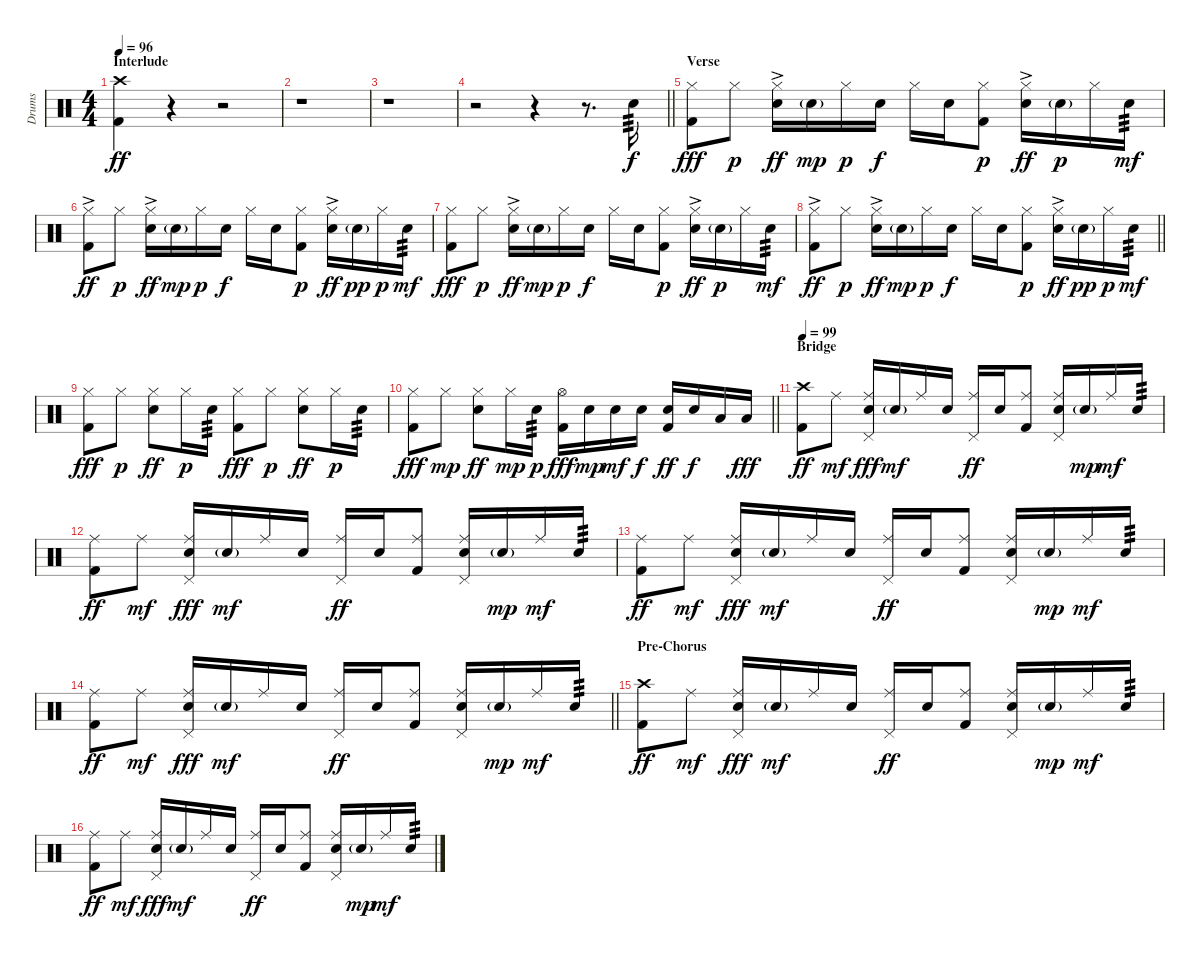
\track ("Drums" "Drums") {instrument percussion}
\staff {score}
\articulation defaults
\ts (4 4)
\section ("" "Interlude")
\tempo 96
\clef neutral
\ks aminor
("Crash high (hit)" "Kick (hit) 2").4{dy ff} r.4 r.2 |
r.1 |
r.1 |
\barLineRight lightlight
r.2 r.4 r.8{d} "Electric Snare (hit)".16{tp 3 dy f} |
\section ("" "Verse")
("Hi-Hat (closed)" "Kick (hit) 2").8{dy fff} "Hi-Hat (closed)".8{dy p} ("Hi-Hat (closed)"{ac} "Electric Snare (hit)"{ac}).16{dy ff} "Electric Snare (hit)"{g}.16{dy mp} "Hi-Hat (closed)".16{dy p} "Electric Snare (hit)".16{dy f} "Hi-Hat (closed)".16 "Electric Snare (hit)".16 ("Hi-Hat (closed)" "Kick (hit) 2").8{dy p} ("Hi-Hat (closed)"{ac} "Electric Snare (hit)"{ac}).16{dy ff} "Electric Snare (hit)"{g}.16{dy p} "Hi-Hat (closed)".16 "Electric Snare (hit)".16{tp 3 dy mf} |
("Hi-Hat (closed)"{ac} "Kick (hit) 2").8{dy ff} "Hi-Hat (closed)".8{dy p} ("Hi-Hat (closed)"{ac} "Electric Snare (hit)"{ac}).16{dy ff} "Electric Snare (hit)"{g}.16{dy mp} "Hi-Hat (closed)".16{dy p} "Electric Snare (hit)".16{dy f} "Hi-Hat (closed)".16 "Electric Snare (hit)".16 ("Hi-Hat (closed)" "Kick (hit) 2").8{dy p} ("Hi-Hat (closed)"{ac} "Electric Snare (hit)"{ac}).16{dy ff} "Electric Snare (hit)"{g}.16{dy pp} "Hi-Hat (closed)".16{dy p} "Electric Snare (hit)".16{tp 3 dy mf} |
("Hi-Hat (closed)" "Kick (hit) 2").8{dy fff} "Hi-Hat (closed)".8{dy p} ("Hi-Hat (closed)"{ac} "Electric Snare (hit)"{ac}).16{dy ff} "Electric Snare (hit)"{g}.16{dy mp} "Hi-Hat (closed)".16{dy p} "Electric Snare (hit)".16{dy f} "Hi-Hat (closed)".16 "Electric Snare (hit)".16 ("Hi-Hat (closed)" "Kick (hit) 2").8{dy p} ("Hi-Hat (closed)"{ac} "Electric Snare (hit)"{ac}).16{dy ff} "Electric Snare (hit)"{g}.16{dy p} "Hi-Hat (closed)".16 "Electric Snare (hit)".16{tp 3 dy mf} |
\barLineRight lightlight
("Hi-Hat (closed)"{ac} "Kick (hit) 2").8{dy ff} "Hi-Hat (closed)".8{dy p} ("Hi-Hat (closed)"{ac} "Electric Snare (hit)"{ac}).16{dy ff} "Electric Snare (hit)"{g}.16{dy mp} "Hi-Hat (closed)".16{dy p} "Electric Snare (hit)".16{dy f} "Hi-Hat (closed)".16 "Electric Snare (hit)".16 ("Hi-Hat (closed)" "Kick (hit) 2").8{dy p} ("Hi-Hat (closed)"{ac} "Electric Snare (hit)"{ac}).16{dy ff} "Electric Snare (hit)"{g}.16{dy pp} "Hi-Hat (closed)".16{dy p} "Electric Snare (hit)".16{tp 3 dy mf} |
("Hi-Hat (closed)" "Kick (hit) 2").8{dy fff} "Hi-Hat (closed)".8{dy p} ("Hi-Hat (closed)" "Electric Snare (hit)").8{dy ff} "Hi-Hat (closed)".16{dy p} "Electric Snare (hit)".16{tp 3} ("Hi-Hat (closed)" "Kick (hit) 2").8{dy fff} "Hi-Hat (closed)".8{dy p} ("Hi-Hat (closed)" "Electric Snare (hit)").8{dy ff} "Hi-Hat (closed)".16{dy p} "Electric Snare (hit)".16{tp 3} |
\barLineRight lightlight
("Hi-Hat (closed)" "Kick (hit) 2").8{dy fff} "Hi-Hat (closed)".8{dy mp} ("Hi-Hat (closed)" "Electric Snare (hit)").8{dy ff} "Hi-Hat (closed)".16{dy mp} "Electric Snare (hit)".16{tp 3 dy p} ("Hi-Hat (open)" "Kick (hit) 2").16{dy fff} "Electric Snare (hit)".16{dy mp} "Electric Snare (hit)".16{dy mf} "Electric Snare (hit)".16{dy f} ("Electric Snare (hit)" "Kick (hit) 2").16{dy ff} "Electric Snare (hit)".16{dy f} "Low Tom (hit)".16 "Low Tom (hit)".16{dy fff} |
\section ("" "Bridge")
\tempo 99
\ks c
("Crash high (hit)" "Kick (hit) 2").8{dy ff} "Ride (middle)".8{dy mf} ("Ride (middle)" "Pedal Hi-Hat (hit)" "Electric Snare (hit)").16{dy fff} "Electric Snare (hit)"{g}.16{dy mf} "Ride (middle)".16 "Electric Snare (hit)".16 ("Ride (middle)" "Pedal Hi-Hat (hit)").16{dy ff} "Electric Snare (hit)".16 ("Ride (middle)" "Kick (hit) 2").8 ("Ride (middle)" "Pedal Hi-Hat (hit)" "Electric Snare (hit)").16 "Electric Snare (hit)"{g}.16{dy mp} "Ride (middle)".16{dy mf} "Electric Snare (hit)".16{tp 3} |
("Ride (middle)" "Kick (hit) 2").8{dy ff} "Ride (middle)".8{dy mf} ("Ride (middle)" "Pedal Hi-Hat (hit)" "Electric Snare (hit)").16{dy fff} "Electric Snare (hit)"{g}.16{dy mf} "Ride (middle)".16 "Electric Snare (hit)".16 ("Ride (middle)" "Pedal Hi-Hat (hit)").16{dy ff} "Electric Snare (hit)".16 ("Ride (middle)" "Kick (hit) 2").8 ("Ride (middle)" "Pedal Hi-Hat (hit)" "Electric Snare (hit)").16 "Electric Snare (hit)"{g}.16{dy mp} "Ride (middle)".16{dy mf} "Electric Snare (hit)".16{tp 3} |
("Ride (middle)" "Kick (hit) 2").8{dy ff} "Ride (middle)".8{dy mf} ("Ride (middle)" "Pedal Hi-Hat (hit)" "Electric Snare (hit)").16{dy fff} "Electric Snare (hit)"{g}.16{dy mf} "Ride (middle)".16 "Electric Snare (hit)".16 ("Ride (middle)" "Pedal Hi-Hat (hit)").16{dy ff} "Electric Snare (hit)".16 ("Ride (middle)" "Kick (hit) 2").8 ("Ride (middle)" "Pedal Hi-Hat (hit)" "Electric Snare (hit)").16 "Electric Snare (hit)"{g}.16{dy mp} "Ride (middle)".16{dy mf} "Electric Snare (hit)".16{tp 3} |
\barLineRight lightlight
("Ride (middle)" "Kick (hit) 2").8{dy ff} "Ride (middle)".8{dy mf} ("Ride (middle)" "Pedal Hi-Hat (hit)" "Electric Snare (hit)").16{dy fff} "Electric Snare (hit)"{g}.16{dy mf} "Ride (middle)".16 "Electric Snare (hit)".16 ("Ride (middle)" "Pedal Hi-Hat (hit)").16{dy ff} "Electric Snare (hit)".16 ("Ride (middle)" "Kick (hit) 2").8 ("Ride (middle)" "Pedal Hi-Hat (hit)" "Electric Snare (hit)").16 "Electric Snare (hit)"{g}.16{dy mp} "Ride (middle)".16{dy mf} "Electric Snare (hit)".16{tp 3} |
\section ("" "Pre-Chorus")
("Crash high (hit)" "Kick (hit) 2").8{dy ff} "Ride (middle)".8{dy mf} ("Ride (middle)" "Pedal Hi-Hat (hit)" "Electric Snare (hit)").16{dy fff} "Electric Snare (hit)"{g}.16{dy mf} "Ride (middle)".16 "Electric Snare (hit)".16 ("Ride (middle)" "Pedal Hi-Hat (hit)").16{dy ff} "Electric Snare (hit)".16 ("Ride (middle)" "Kick (hit) 2").8 ("Ride (middle)" "Pedal Hi-Hat (hit)" "Electric Snare (hit)").16 "Electric Snare (hit)"{g}.16{dy mp} "Ride (middle)".16{dy mf} "Electric Snare (hit)".16{tp 3} |
("Ride (middle)" "Kick (hit) 2").8{dy ff} "Ride (middle)".8{dy mf} ("Ride (middle)" "Pedal Hi-Hat (hit)" "Electric Snare (hit)").16{dy fff} "Electric Snare (hit)"{g}.16{dy mf} "Ride (middle)".16 "Electric Snare (hit)".16 ("Ride (middle)" "Pedal Hi-Hat (hit)").16{dy ff} "Electric Snare (hit)".16 ("Ride (middle)" "Kick (hit) 2").8 ("Ride (middle)" "Pedal Hi-Hat (hit)" "Electric Snare (hit)").16 "Electric Snare (hit)"{g}.16{dy mp} "Ride (middle)".16{dy mf} "Electric Snare (hit)".16{tp 3}
